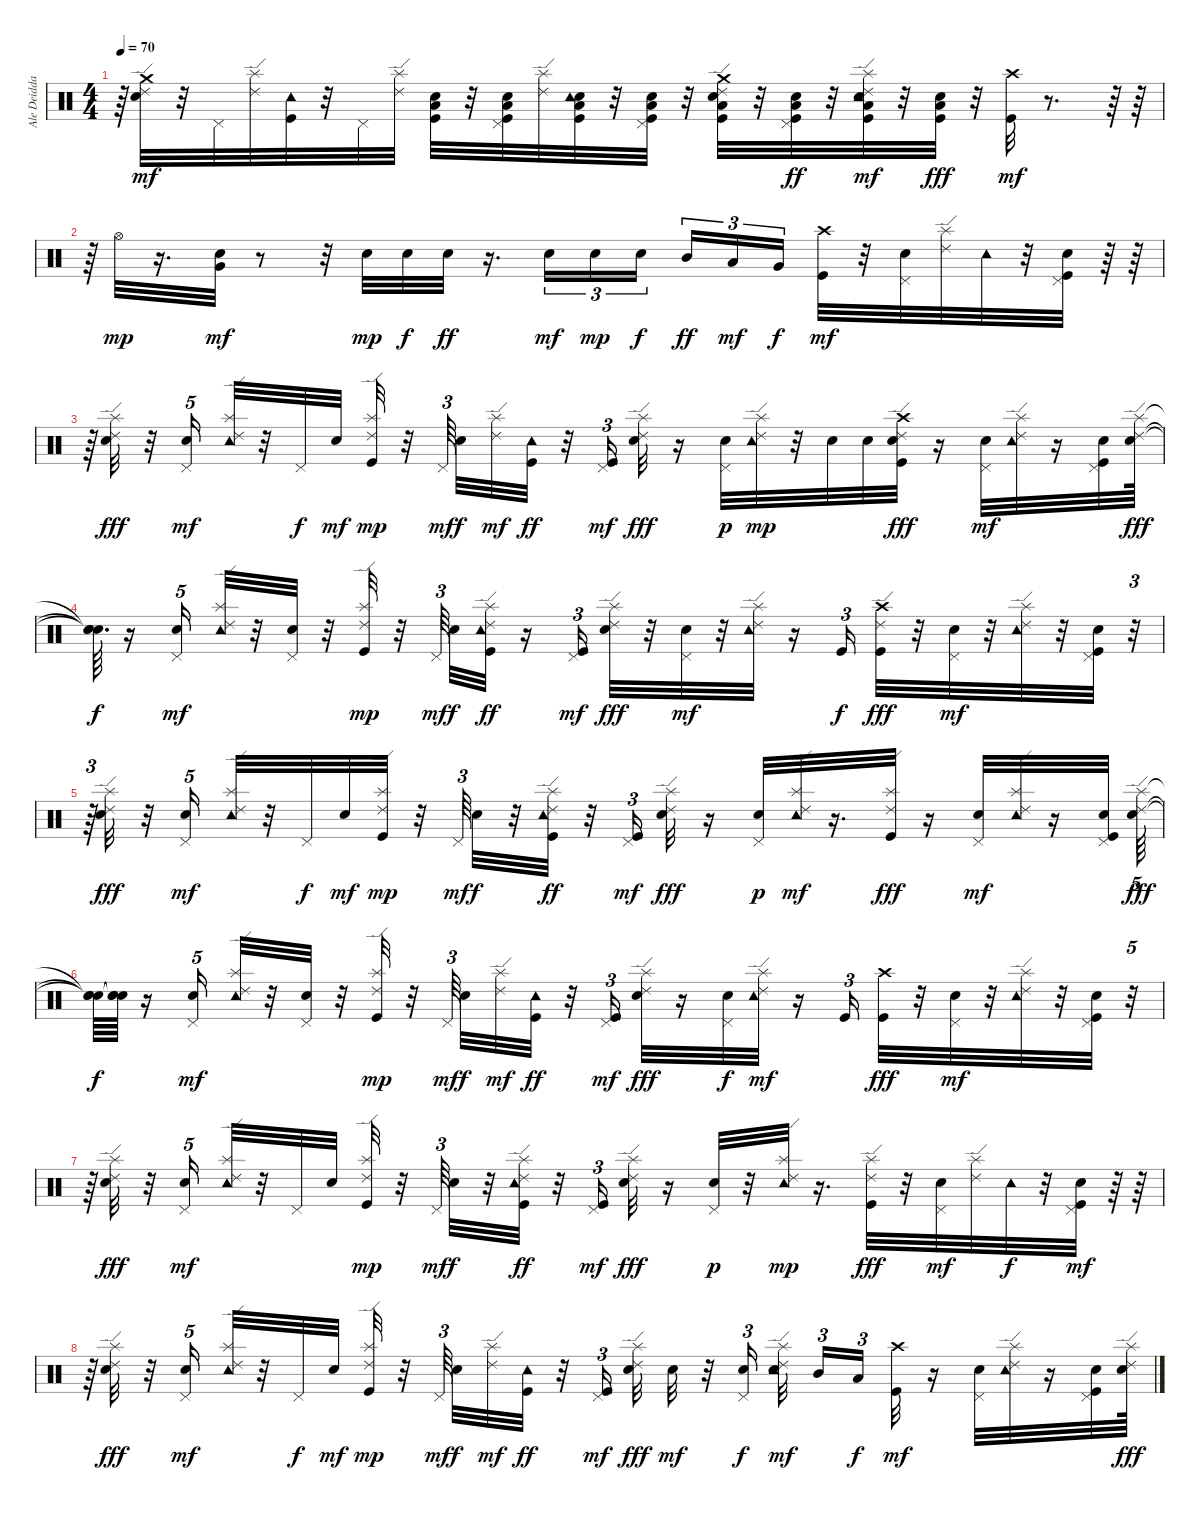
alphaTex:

\track ("Ale Deidda" "Ale Deidda") {instrument percussion}
\staff {score}
\articulation defaults
\ts (4 4)
\tempo 70
\clef neutral
\ks c
r.64{dy mf} ("Ride (edge) 2" "Electric Snare (hit)" "Crash medium (hit)").32 r.32 "Pedal Hi-Hat (hit)".32 ("Splash (hit)" "Ride (edge) 2").32 ("Kick (hit)" "Tambourine (hit)").32 r.32 "Pedal Hi-Hat (hit)".32 ("Splash (hit)" "Ride (edge) 2").32 ("Kick (hit)" "Electric Snare (hit)" "Low Floor Tom (hit)").32 r.32 ("Kick (hit)" "Electric Snare (hit)" "Low Floor Tom (hit)" "Pedal Hi-Hat (hit)").32 ("Splash (hit)" "Ride (edge) 2").32 ("Kick (hit)" "Electric Snare (hit)" "Low Floor Tom (hit)" "Tambourine (hit)").32 r.32 ("Kick (hit)" "Electric Snare (hit)" "Low Floor Tom (hit)" "Pedal Hi-Hat (hit)").32 r.32 ("Ride (edge) 2" "Kick (hit)" "Electric Snare (hit)" "Low Floor Tom (hit)" "Crash medium (hit)").32 r.32 ("Kick (hit)" "Electric Snare (hit)" "Low Floor Tom (hit)" "Pedal Hi-Hat (hit)").32{dy ff} r.32 ("Kick (hit)" "Electric Snare (hit)" "Low Floor Tom (hit)" "Splash (hit)" "Ride (edge) 2" "Tambourine (hit)").32{dy mf} r.32 ("Kick (hit)" "Electric Snare (hit)" "Low Floor Tom (hit)").32{dy fff} r.32 ("Kick (hit)" "Crash high (hit)").32{dy mf} r.8{d} r.64 r.64 |
r.64 "Hi-Hat (open)".32{dy mp} r.16{d} ("Very Low Tom (hit)" "Electric Snare (hit)").32{dy mf} r.8 r.32 "Snare (hit) 2".32{dy mp} "Electric Snare (hit)".32{dy f} "Electric Snare (hit)".32{dy ff} r.16{d} "Electric Snare (hit)".16{tu (3 2) dy mf} "Electric Snare (hit)".16{tu (3 2) dy mp} "Electric Snare (hit)".16{tu (3 2) dy f beam splitsecondary} "Mid Tom (hit)".16{tu (3 2) dy ff} "Low Tom (hit)".16{tu (3 2) dy mf} "Very Low Tom (hit)".16{tu (3 2) dy f} ("Kick (hit)" "Crash high (hit)").32{dy mf} r.32 ("Snare (hit) 2" "Pedal Hi-Hat (hit)").32 ("Splash (hit)" "Ride (edge) 2").32 "Tambourine (hit)".32 r.32 ("Snare (hit) 2" "Pedal Hi-Hat (hit)" "Kick (hit)").32 r.64 r.64 |
r.64 ("Splash (hit)" "Ride (edge) 2" "Electric Snare (hit)").32{dy fff} r.32 ("Snare (hit) 2" "Pedal Hi-Hat (hit)").16{tu (5 4) dy mf} ("Splash (hit)" "Ride (edge) 2" "Tambourine (hit)").32 r.32 "Pedal Hi-Hat (hit)".32{dy f} "Snare (hit) 2".32{dy mf} ("Splash (hit)" "Ride (edge) 2" "Kick (hit)").32{dy mp} r.32 "Pedal Hi-Hat (hit)".64{tu (3 2) dy mf beam splitsecondary} "Snare (hit) 2".32{dy f} ("Splash (hit)" "Ride (edge) 2").32{dy mf} ("Tambourine (hit)" "Kick (hit)").32{dy ff} r.32 ("Pedal Hi-Hat (hit)" "Kick (hit)").16{tu (3 2) dy mf} ("Electric Snare (hit)" "Splash (hit)" "Ride (edge) 2").32{dy fff} r.16 ("Snare (hit) 2" "Pedal Hi-Hat (hit)").32{dy p} ("Splash (hit)" "Ride (edge) 2" "Tambourine (hit)").32{dy mp} r.32 "Electric Snare (hit)".32 "Electric Snare (hit)".32 ("Electric Snare (hit)" "Kick (hit)" "Crash high (hit)" "Ride (edge) 2").32{dy fff} r.16 ("Snare (hit) 2" "Pedal Hi-Hat (hit)").32{dy mf} ("Splash (hit)" "Ride (edge) 2" "Tambourine (hit)").32 r.16 ("Snare (hit) 2" "Pedal Hi-Hat (hit)" "Kick (hit)").32 ("Splash (hit)" "Ride (edge) 2" "Electric Snare (hit)").64{dy fff} |
("Snare (hit)"{t} "Snare (hit)"{t} "Snare (hit)"{t}).64{d dy f} r.16 ("Snare (hit) 2" "Pedal Hi-Hat (hit)").16{tu (5 4) dy mf} ("Splash (hit)" "Ride (edge) 2" "Tambourine (hit)").32 r.32 ("Pedal Hi-Hat (hit)" "Snare (hit) 2").32 r.32 ("Splash (hit)" "Ride (edge) 2" "Kick (hit)").32{dy mp} r.32 "Pedal Hi-Hat (hit)".64{tu (3 2) dy mf beam splitsecondary} "Snare (hit) 2".32{dy f} ("Splash (hit)" "Ride (edge) 2" "Tambourine (hit)" "Kick (hit)").32{dy ff} r.16 ("Pedal Hi-Hat (hit)" "Kick (hit)").16{tu (3 2) dy mf} ("Electric Snare (hit)" "Splash (hit)" "Ride (edge) 2").32{dy fff} r.32 ("Electric Snare (hit)" "Pedal Hi-Hat (hit)").32{dy mf} r.32 ("Splash (hit)" "Ride (edge) 2" "Tambourine (hit)").32 r.16 "Kick (hit)".16{tu (3 2) dy f} ("Kick (hit)" "Crash high (hit)" "Ride (edge) 2").32{dy fff} r.32 ("Snare (hit) 2" "Pedal Hi-Hat (hit)").32{dy mf} r.32 ("Splash (hit)" "Ride (edge) 2" "Tambourine (hit)").32 r.32 ("Snare (hit) 2" "Pedal Hi-Hat (hit)" "Kick (hit)").32 r.32{tu (3 2)} |
r.64{tu (3 2)} ("Splash (hit)" "Ride (edge) 2" "Electric Snare (hit)").32{dy fff} r.32 ("Snare (hit) 2" "Pedal Hi-Hat (hit)").16{tu (5 4) dy mf} ("Splash (hit)" "Ride (edge) 2" "Tambourine (hit)").32 r.32 "Pedal Hi-Hat (hit)".32{dy f} "Snare (hit) 2".32{dy mf} ("Splash (hit)" "Ride (edge) 2" "Kick (hit)").32{dy mp} r.32 "Pedal Hi-Hat (hit)".64{tu (3 2) dy mf} "Snare (hit) 2".32{dy f} r.32 ("Splash (hit)" "Ride (edge) 2" "Tambourine (hit)" "Kick (hit)").32{dy ff} r.32 ("Pedal Hi-Hat (hit)" "Kick (hit)").16{tu (3 2) dy mf} ("Electric Snare (hit)" "Splash (hit)" "Ride (edge) 2").32{dy fff} r.16 ("Snare (hit) 2" "Pedal Hi-Hat (hit)").32{dy p} ("Splash (hit)" "Ride (edge) 2" "Tambourine (hit)").32{dy mf} r.16{d} ("Kick (hit)" "Splash (hit)" "Ride (edge) 2").32{dy fff} r.16 ("Snare (hit) 2" "Pedal Hi-Hat (hit)").32{dy mf} ("Splash (hit)" "Ride (edge) 2" "Tambourine (hit)").32 r.16 ("Snare (hit) 2" "Pedal Hi-Hat (hit)" "Kick (hit)").32 ("Splash (hit)" "Ride (edge) 2" "Electric Snare (hit)").64{tu (5 4) dy fff} |
("Snare (hit)"{t} "Snare (hit)"{t} "Snare (hit)"{t}).64{dy f} ("Snare (hit)"{t} "Snare (hit)"{t} "Snare (hit)"{t}).64 r.16 ("Snare (hit) 2" "Pedal Hi-Hat (hit)").16{tu (5 4) dy mf} ("Splash (hit)" "Ride (edge) 2" "Tambourine (hit)").32 r.32 ("Pedal Hi-Hat (hit)" "Snare (hit) 2").32 r.32 ("Splash (hit)" "Ride (edge) 2" "Kick (hit)").32{dy mp} r.32 "Pedal Hi-Hat (hit)".64{tu (3 2) dy mf beam splitsecondary} "Snare (hit) 2".32{dy f} ("Splash (hit)" "Ride (edge) 2").32{dy mf} ("Tambourine (hit)" "Kick (hit)").32{dy ff} r.32 ("Pedal Hi-Hat (hit)" "Kick (hit)").16{tu (3 2) dy mf} ("Electric Snare (hit)" "Splash (hit)" "Ride (edge) 2").32{dy fff} r.16 ("Pedal Hi-Hat (hit)" "Electric Snare (hit)").32{dy f} ("Splash (hit)" "Ride (edge) 2" "Tambourine (hit)").32{dy mf} r.16 "Kick (hit)".16{tu (3 2)} ("Kick (hit)" "Crash high (hit)").32{dy fff} r.32 ("Snare (hit) 2" "Pedal Hi-Hat (hit)").32{dy mf} r.32 ("Splash (hit)" "Ride (edge) 2" "Tambourine (hit)").32 r.32 ("Snare (hit) 2" "Pedal Hi-Hat (hit)" "Kick (hit)").32 r.32{tu (5 4)} |
r.64 ("Splash (hit)" "Ride (edge) 2" "Electric Snare (hit)").32{dy fff} r.32 ("Snare (hit) 2" "Pedal Hi-Hat (hit)").16{tu (5 4) dy mf} ("Splash (hit)" "Ride (edge) 2" "Tambourine (hit)").32 r.32 "Pedal Hi-Hat (hit)".32 "Snare (hit) 2".32 ("Splash (hit)" "Ride (edge) 2" "Kick (hit)").32{dy mp} r.32 "Pedal Hi-Hat (hit)".64{tu (3 2) dy mf} "Snare (hit) 2".32{dy f} r.32 ("Splash (hit)" "Ride (edge) 2" "Tambourine (hit)" "Kick (hit)").32{dy ff} r.32 ("Pedal Hi-Hat (hit)" "Kick (hit)").16{tu (3 2) dy mf} ("Electric Snare (hit)" "Splash (hit)" "Ride (edge) 2").32{dy fff} r.16 ("Snare (hit) 2" "Pedal Hi-Hat (hit)").32{dy p} r.32 ("Splash (hit)" "Ride (edge) 2" "Tambourine (hit)").32{dy mp} r.16{d} ("Kick (hit)" "Splash (hit)" "Ride (edge) 2").32{dy fff} r.32 ("Snare (hit) 2" "Pedal Hi-Hat (hit)").32{dy mf} ("Splash (hit)" "Ride (edge) 2").32 "Tambourine (hit)".32{dy f} r.32 ("Snare (hit) 2" "Pedal Hi-Hat (hit)" "Kick (hit)").32{dy mf} r.64 r.64 |
r.64 ("Splash (hit)" "Ride (edge) 2" "Electric Snare (hit)").32{dy fff} r.32 ("Snare (hit) 2" "Pedal Hi-Hat (hit)").16{tu (5 4) dy mf} ("Splash (hit)" "Ride (edge) 2" "Tambourine (hit)").32 r.32 "Pedal Hi-Hat (hit)".32{dy f} "Snare (hit) 2".32{dy mf} ("Splash (hit)" "Ride (edge) 2" "Kick (hit)").32{dy mp} r.32 "Pedal Hi-Hat (hit)".64{tu (3 2) dy mf beam splitsecondary} "Snare (hit) 2".32{dy f} ("Splash (hit)" "Ride (edge) 2").32{dy mf} ("Tambourine (hit)" "Kick (hit)").32{dy ff} r.32 ("Pedal Hi-Hat (hit)" "Kick (hit)").16{tu (3 2) dy mf} ("Splash (hit)" "Ride (edge) 2" "Electric Snare (hit)").32{dy fff} "Electric Snare (hit)".32{dy mf} r.32 ("Pedal Hi-Hat (hit)" "Electric Snare (hit)").16{tu (3 2) dy f beam splitsecondary} ("Electric Snare (hit)" "Splash (hit)" "Ride (edge) 2" "Tambourine (hit)").32{dy mf beam splitsecondary} "Mid Tom (hit)".16{tu (3 2)} "Low Tom (hit)".16{tu (3 2) dy f beam splitsecondary} ("Kick (hit)" "Crash high (hit)").32{dy mf} r.16 ("Snare (hit) 2" "Pedal Hi-Hat (hit)").32 ("Splash (hit)" "Ride (edge) 2" "Tambourine (hit)").32 r.16 ("Snare (hit) 2" "Pedal Hi-Hat (hit)" "Kick (hit)").32 ("Splash (hit)" "Ride (edge) 2" "Electric Snare (hit)").64{dy fff}
